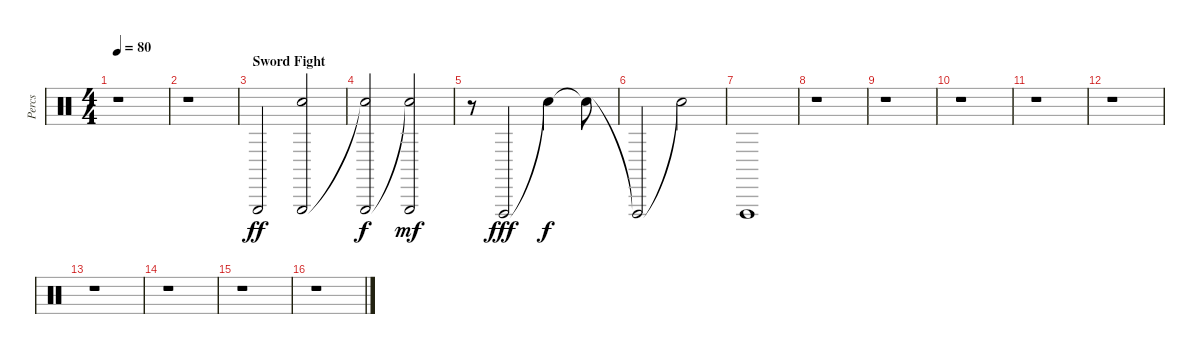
\track ("Percs" "Percs") {instrument percussion}
\staff {score}
\articulation defaults
\ts (4 4)
\tempo 80
\clef neutral
\ks c
r.1{dy fff} |
r.1 |
\section ("" "Sword Fight")
"Triangle (hit)".2{dy ff} ("Triangle (hit)" "Snare (hit)").2 |
("Snare (hit)"{t} "Triangle (hit)").2{dy f} ("Triangle (hit)" "Snare (hit)"{t}).2{dy mf} |
r.8 "Vibraslap (hit)".2{dy fff} "Snare (hit)"{t}.4{dy f} "Snare (hit)"{t}.8 |
"Vibraslap (hit)"{t}.2 "Snare (hit)"{t}.2 |
"Vibraslap (hit)".1 |
r.1 |
r.1 |
r.1 |
r.1 |
r.1 |
r.1 |
r.1 |
r.1 |
r.1
